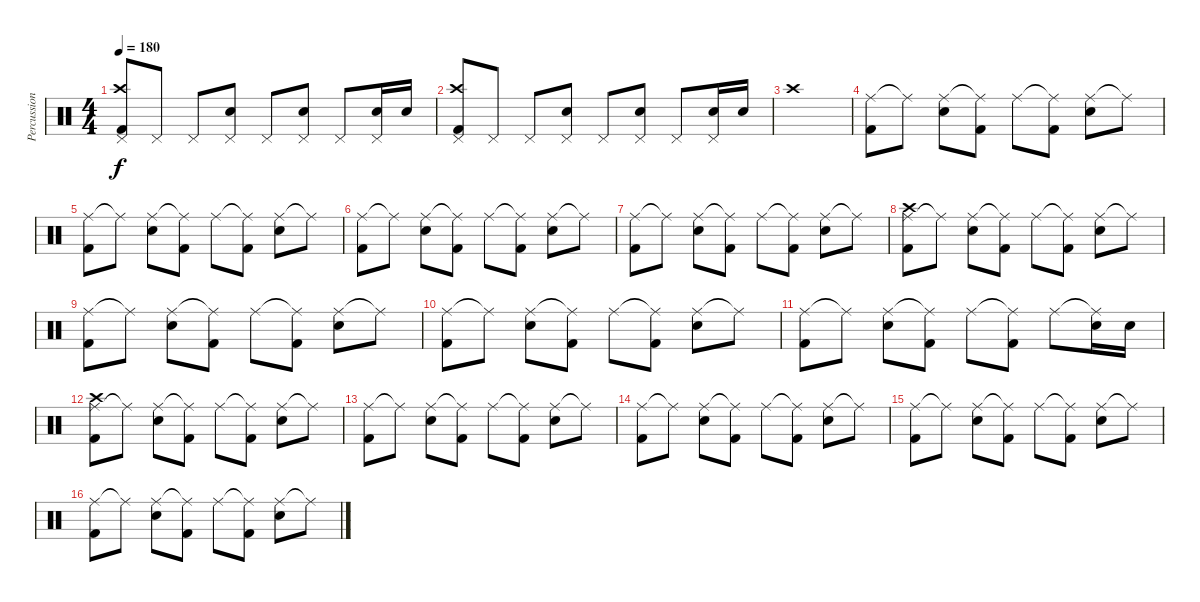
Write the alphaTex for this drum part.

\track ("Percussions" "Percussion") {instrument percussion}
\staff {score}
\articulation defaults
\ts (4 4)
\tempo 180
\clef neutral
\ks c
("Pedal Hi-Hat (hit)" "Crash high (hit)" "Kick (hit) 2").8{dy f} "Pedal Hi-Hat (hit)".8 "Pedal Hi-Hat (hit)".8 ("Pedal Hi-Hat (hit)" "Electric Snare (hit)").8 "Pedal Hi-Hat (hit)".8 ("Pedal Hi-Hat (hit)" "Electric Snare (hit)").8 "Pedal Hi-Hat (hit)".8 ("Pedal Hi-Hat (hit)" "Electric Snare (hit)").16 "Electric Snare (hit)".16 |
("Pedal Hi-Hat (hit)" "Crash high (hit)" "Kick (hit) 2").8 "Pedal Hi-Hat (hit)".8 "Pedal Hi-Hat (hit)".8 ("Pedal Hi-Hat (hit)" "Electric Snare (hit)").8 "Pedal Hi-Hat (hit)".8 ("Pedal Hi-Hat (hit)" "Electric Snare (hit)").8 "Pedal Hi-Hat (hit)".8 ("Pedal Hi-Hat (hit)" "Electric Snare (hit)").16 "Electric Snare (hit)".16 |
"Crash high (hit)".1 |
("Ride (middle)" "Kick (hit) 2").8 "Ride (middle)"{t}.8 ("Ride (middle)" "Electric Snare (hit)").8 ("Ride (middle)"{t} "Kick (hit) 2").8 "Ride (middle)".8 ("Ride (middle)"{t} "Kick (hit) 2").8 ("Ride (middle)" "Electric Snare (hit)").8 "Ride (middle)"{t}.8 |
("Ride (middle)" "Kick (hit) 2").8 "Ride (middle)"{t}.8 ("Ride (middle)" "Electric Snare (hit)").8 ("Ride (middle)"{t} "Kick (hit) 2").8 "Ride (middle)".8 ("Ride (middle)"{t} "Kick (hit) 2").8 ("Ride (middle)" "Electric Snare (hit)").8 "Ride (middle)"{t}.8 |
("Ride (middle)" "Kick (hit) 2").8 "Ride (middle)"{t}.8 ("Ride (middle)" "Electric Snare (hit)").8 ("Ride (middle)"{t} "Kick (hit) 2").8 "Ride (middle)".8 ("Ride (middle)"{t} "Kick (hit) 2").8 ("Ride (middle)" "Electric Snare (hit)").8 "Ride (middle)"{t}.8 |
("Ride (middle)" "Kick (hit) 2").8 "Ride (middle)"{t}.8 ("Ride (middle)" "Electric Snare (hit)").8 ("Ride (middle)"{t} "Kick (hit) 2").8 "Ride (middle)".8 ("Ride (middle)"{t} "Kick (hit) 2").8 ("Ride (middle)" "Electric Snare (hit)").8 "Ride (middle)"{t}.8 |
("Ride (middle)" "Crash high (hit)" "Kick (hit) 2").8 "Ride (middle)"{t}.8 ("Ride (middle)" "Electric Snare (hit)").8 ("Ride (middle)"{t} "Kick (hit) 2").8 "Ride (middle)".8 ("Ride (middle)"{t} "Kick (hit) 2").8 ("Ride (middle)" "Electric Snare (hit)").8 "Ride (middle)"{t}.8 |
("Ride (middle)" "Kick (hit) 2").8 "Ride (middle)"{t}.8 ("Ride (middle)" "Electric Snare (hit)").8 ("Ride (middle)"{t} "Kick (hit) 2").8 "Ride (middle)".8 ("Ride (middle)"{t} "Kick (hit) 2").8 ("Ride (middle)" "Electric Snare (hit)").8 "Ride (middle)"{t}.8 |
("Ride (middle)" "Kick (hit) 2").8 "Ride (middle)"{t}.8 ("Ride (middle)" "Electric Snare (hit)").8 ("Ride (middle)"{t} "Kick (hit) 2").8 "Ride (middle)".8 ("Ride (middle)"{t} "Kick (hit) 2").8 ("Ride (middle)" "Electric Snare (hit)").8 "Ride (middle)"{t}.8 |
("Ride (middle)" "Kick (hit) 2").8 "Ride (middle)"{t}.8 ("Ride (middle)" "Electric Snare (hit)").8 ("Ride (middle)"{t} "Kick (hit) 2").8 "Ride (middle)".8 ("Ride (middle)"{t} "Kick (hit) 2").8 "Ride (middle)".8 ("Ride (middle)"{t} "Electric Snare (hit)").16 "Electric Snare (hit)".16 |
("Ride (middle)" "Crash high (hit)" "Kick (hit) 2").8 "Ride (middle)"{t}.8 ("Ride (middle)" "Electric Snare (hit)").8 ("Ride (middle)"{t} "Kick (hit) 2").8 "Ride (middle)".8 ("Ride (middle)"{t} "Kick (hit) 2").8 ("Ride (middle)" "Electric Snare (hit)").8 "Ride (middle)"{t}.8 |
("Ride (middle)" "Kick (hit) 2").8 "Ride (middle)"{t}.8 ("Ride (middle)" "Electric Snare (hit)").8 ("Ride (middle)"{t} "Kick (hit) 2").8 "Ride (middle)".8 ("Ride (middle)"{t} "Kick (hit) 2").8 ("Ride (middle)" "Electric Snare (hit)").8 "Ride (middle)"{t}.8 |
("Ride (middle)" "Kick (hit) 2").8 "Ride (middle)"{t}.8 ("Ride (middle)" "Electric Snare (hit)").8 ("Ride (middle)"{t} "Kick (hit) 2").8 "Ride (middle)".8 ("Ride (middle)"{t} "Kick (hit) 2").8 ("Ride (middle)" "Electric Snare (hit)").8 "Ride (middle)"{t}.8 |
("Ride (middle)" "Kick (hit) 2").8 "Ride (middle)"{t}.8 ("Ride (middle)" "Electric Snare (hit)").8 ("Ride (middle)"{t} "Kick (hit) 2").8 "Ride (middle)".8 ("Ride (middle)"{t} "Kick (hit) 2").8 ("Ride (middle)" "Electric Snare (hit)").8 "Ride (middle)"{t}.8 |
("Ride (middle)" "Kick (hit) 2").8 "Ride (middle)"{t}.8 ("Ride (middle)" "Electric Snare (hit)").8 ("Ride (middle)"{t} "Kick (hit) 2").8 "Ride (middle)".8 ("Ride (middle)"{t} "Kick (hit) 2").8 ("Ride (middle)" "Electric Snare (hit)").8 "Ride (middle)"{t}.8
